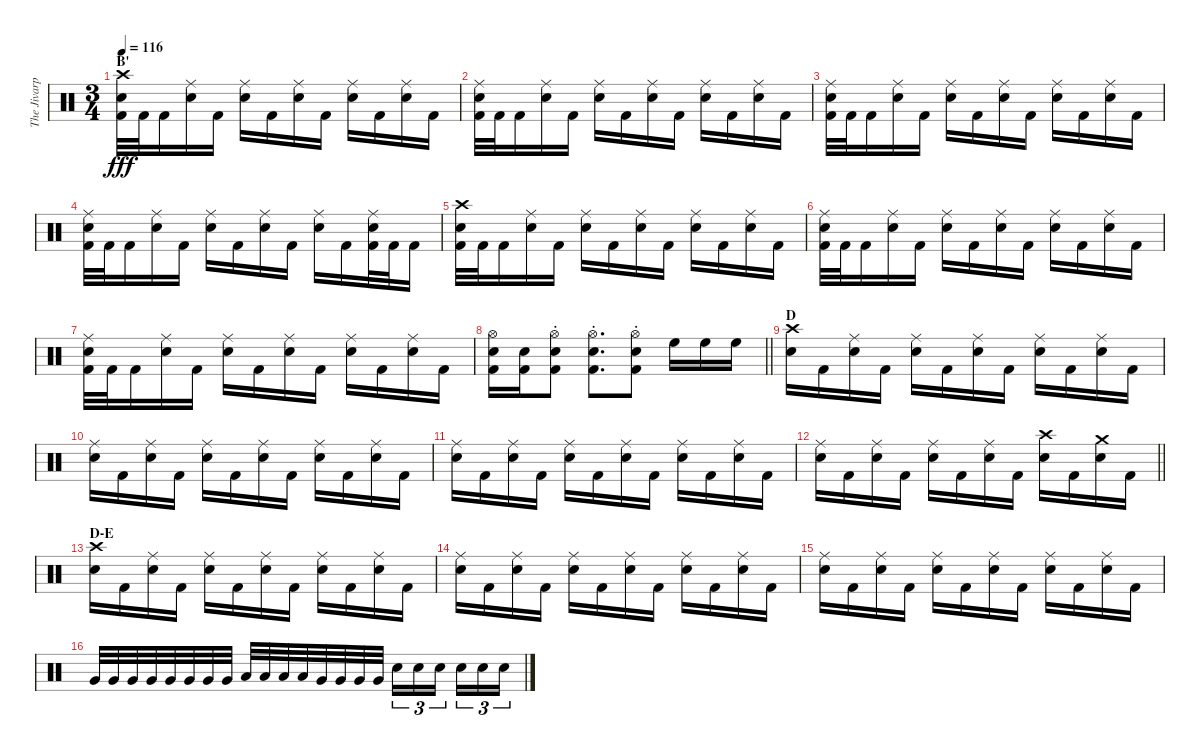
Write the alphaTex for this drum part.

\track ("The Jivarp" "The Jivarp") {instrument percussion}
\staff {score}
\articulation defaults
\ts (3 4)
\section ("" "B'")
\tempo 116
\clef neutral
\ks c
("Crash high (hit)" "Electric Snare (hit)" "Kick (hit) 2").32{dy fff} "Kick (hit) 2".32 "Kick (hit) 2".16 ("Ride (middle)" "Electric Snare (hit)").16 "Kick (hit) 2".16 ("Ride (middle)" "Electric Snare (hit)").16 "Kick (hit) 2".16 ("Ride (middle)" "Electric Snare (hit)").16 "Kick (hit) 2".16 ("Ride (middle)" "Electric Snare (hit)").16 "Kick (hit) 2".16 ("Ride (middle)" "Electric Snare (hit)").16 "Kick (hit) 2".16 |
("Ride (middle)" "Electric Snare (hit)" "Kick (hit) 2").32 "Kick (hit) 2".32 "Kick (hit) 2".16 ("Ride (middle)" "Electric Snare (hit)").16 "Kick (hit) 2".16 ("Ride (middle)" "Electric Snare (hit)").16 "Kick (hit) 2".16 ("Ride (middle)" "Electric Snare (hit)").16 "Kick (hit) 2".16 ("Ride (middle)" "Electric Snare (hit)").16 "Kick (hit) 2".16 ("Ride (middle)" "Electric Snare (hit)").16 "Kick (hit) 2".16 |
("Ride (middle)" "Electric Snare (hit)" "Kick (hit) 2").32 "Kick (hit) 2".32 "Kick (hit) 2".16 ("Ride (middle)" "Electric Snare (hit)").16 "Kick (hit) 2".16 ("Ride (middle)" "Electric Snare (hit)").16 "Kick (hit) 2".16 ("Ride (middle)" "Electric Snare (hit)").16 "Kick (hit) 2".16 ("Ride (middle)" "Electric Snare (hit)").16 "Kick (hit) 2".16 ("Ride (middle)" "Electric Snare (hit)").16 "Kick (hit) 2".16 |
("Ride (middle)" "Electric Snare (hit)" "Kick (hit) 2").32 "Kick (hit) 2".32 "Kick (hit) 2".16 ("Ride (middle)" "Electric Snare (hit)").16 "Kick (hit) 2".16 ("Ride (middle)" "Electric Snare (hit)").16 "Kick (hit) 2".16 ("Ride (middle)" "Electric Snare (hit)").16 "Kick (hit) 2".16 ("Ride (middle)" "Electric Snare (hit)").16 "Kick (hit) 2".16 ("Ride (middle)" "Electric Snare (hit)" "Kick (hit) 2").32 "Kick (hit) 2".32 "Kick (hit) 2".16 |
("Crash high (hit)" "Electric Snare (hit)" "Kick (hit) 2").32 "Kick (hit) 2".32 "Kick (hit) 2".16 ("Ride (middle)" "Electric Snare (hit)").16 "Kick (hit) 2".16 ("Ride (middle)" "Electric Snare (hit)").16 "Kick (hit) 2".16 ("Ride (middle)" "Electric Snare (hit)").16 "Kick (hit) 2".16 ("Ride (middle)" "Electric Snare (hit)").16 "Kick (hit) 2".16 ("Ride (middle)" "Electric Snare (hit)").16 "Kick (hit) 2".16 |
("Ride (middle)" "Electric Snare (hit)" "Kick (hit) 2").32 "Kick (hit) 2".32 "Kick (hit) 2".16 ("Ride (middle)" "Electric Snare (hit)").16 "Kick (hit) 2".16 ("Ride (middle)" "Electric Snare (hit)").16 "Kick (hit) 2".16 ("Ride (middle)" "Electric Snare (hit)").16 "Kick (hit) 2".16 ("Ride (middle)" "Electric Snare (hit)").16 "Kick (hit) 2".16 ("Ride (middle)" "Electric Snare (hit)").16 "Kick (hit) 2".16 |
("Ride (middle)" "Electric Snare (hit)" "Kick (hit) 2").32 "Kick (hit) 2".32 "Kick (hit) 2".16 ("Ride (middle)" "Electric Snare (hit)").16 "Kick (hit) 2".16 ("Ride (middle)" "Electric Snare (hit)").16 "Kick (hit) 2".16 ("Ride (middle)" "Electric Snare (hit)").16 "Kick (hit) 2".16 ("Ride (middle)" "Electric Snare (hit)").16 "Kick (hit) 2".16 ("Ride (middle)" "Electric Snare (hit)").16 "Kick (hit) 2".16 |
\barLineRight lightlight
("Hi-Hat (open)" "Electric Snare (hit)" "Kick (hit) 2").16 ("Electric Snare (hit)" "Kick (hit) 2").16 ("Hi-Hat (open)"{st} "Electric Snare (hit)"{st} "Kick (hit) 2"{st}).8 ("Hi-Hat (open)"{st} "Electric Snare (hit)"{st} "Kick (hit) 2"{st}).8{d} ("Hi-Hat (open)"{st} "Electric Snare (hit)"{st} "Kick (hit) 2"{st}).8 "High Floor Tom (hit)".16 "High Floor Tom (hit)".16 "High Floor Tom (hit)".16 |
\section ("" "D")
("Crash high (hit)" "Electric Snare (hit)").16 "Kick (hit) 2".16 ("Ride (middle)" "Electric Snare (hit)").16 "Kick (hit) 2".16 ("Ride (middle)" "Electric Snare (hit)").16 "Kick (hit) 2".16 ("Ride (middle)" "Electric Snare (hit)").16 "Kick (hit) 2".16 ("Ride (middle)" "Electric Snare (hit)").16 "Kick (hit) 2".16 ("Ride (middle)" "Electric Snare (hit)").16 "Kick (hit) 2".16 |
("Ride (middle)" "Electric Snare (hit)").16 "Kick (hit) 2".16 ("Ride (middle)" "Electric Snare (hit)").16 "Kick (hit) 2".16 ("Ride (middle)" "Electric Snare (hit)").16 "Kick (hit) 2".16 ("Ride (middle)" "Electric Snare (hit)").16 "Kick (hit) 2".16 ("Ride (middle)" "Electric Snare (hit)").16 "Kick (hit) 2".16 ("Ride (middle)" "Electric Snare (hit)").16 "Kick (hit) 2".16 |
("Ride (middle)" "Electric Snare (hit)").16 "Kick (hit) 2".16 ("Ride (middle)" "Electric Snare (hit)").16 "Kick (hit) 2".16 ("Ride (middle)" "Electric Snare (hit)").16 "Kick (hit) 2".16 ("Ride (middle)" "Electric Snare (hit)").16 "Kick (hit) 2".16 ("Ride (middle)" "Electric Snare (hit)").16 "Kick (hit) 2".16 ("Ride (middle)" "Electric Snare (hit)").16 "Kick (hit) 2".16 |
\barLineRight lightlight
("Ride (middle)" "Electric Snare (hit)").16 "Kick (hit) 2".16 ("Ride (middle)" "Electric Snare (hit)").16 "Kick (hit) 2".16 ("Ride (middle)" "Electric Snare (hit)").16 "Kick (hit) 2".16 ("Ride (middle)" "Electric Snare (hit)").16 "Kick (hit) 2".16 ("Crash high (hit)" "Electric Snare (hit)").16 "Kick (hit) 2".16 ("Crash medium (hit)" "Electric Snare (hit)").16 "Kick (hit) 2".16 |
\section ("" "D-E")
("Crash high (hit)" "Electric Snare (hit)").16 "Kick (hit) 2".16 ("Ride (middle)" "Electric Snare (hit)").16 "Kick (hit) 2".16 ("Ride (middle)" "Electric Snare (hit)").16 "Kick (hit) 2".16 ("Ride (middle)" "Electric Snare (hit)").16 "Kick (hit) 2".16 ("Ride (middle)" "Electric Snare (hit)").16 "Kick (hit) 2".16 ("Ride (middle)" "Electric Snare (hit)").16 "Kick (hit) 2".16 |
("Ride (middle)" "Electric Snare (hit)").16 "Kick (hit) 2".16 ("Ride (middle)" "Electric Snare (hit)").16 "Kick (hit) 2".16 ("Ride (middle)" "Electric Snare (hit)").16 "Kick (hit) 2".16 ("Ride (middle)" "Electric Snare (hit)").16 "Kick (hit) 2".16 ("Ride (middle)" "Electric Snare (hit)").16 "Kick (hit) 2".16 ("Ride (middle)" "Electric Snare (hit)").16 "Kick (hit) 2".16 |
("Ride (middle)" "Electric Snare (hit)").16 "Kick (hit) 2".16 ("Ride (middle)" "Electric Snare (hit)").16 "Kick (hit) 2".16 ("Ride (middle)" "Electric Snare (hit)").16 "Kick (hit) 2".16 ("Ride (middle)" "Electric Snare (hit)").16 "Kick (hit) 2".16 ("Ride (middle)" "Electric Snare (hit)").16 "Kick (hit) 2".16 ("Ride (middle)" "Electric Snare (hit)").16 "Kick (hit) 2".16 |
"Very Low Tom (hit)".32 "Very Low Tom (hit)".32 "Very Low Tom (hit)".32 "Very Low Tom (hit)".32 "Very Low Tom (hit)".32 "Very Low Tom (hit)".32 "Very Low Tom (hit)".32 "Very Low Tom (hit)".32 "Low Tom (hit)".32 "Low Tom (hit)".32 "Low Tom (hit)".32 "Low Tom (hit)".32 "Very Low Tom (hit)".32 "Very Low Tom (hit)".32 "Very Low Tom (hit)".32 "Very Low Tom (hit)".32 "Electric Snare (hit)".16{tu (3 2)} "Electric Snare (hit)".16{tu (3 2)} "Electric Snare (hit)".16{tu (3 2) beam splitsecondary} "Electric Snare (hit)".16{tu (3 2)} "Electric Snare (hit)".16{tu (3 2)} "Electric Snare (hit)".16{tu (3 2)}
